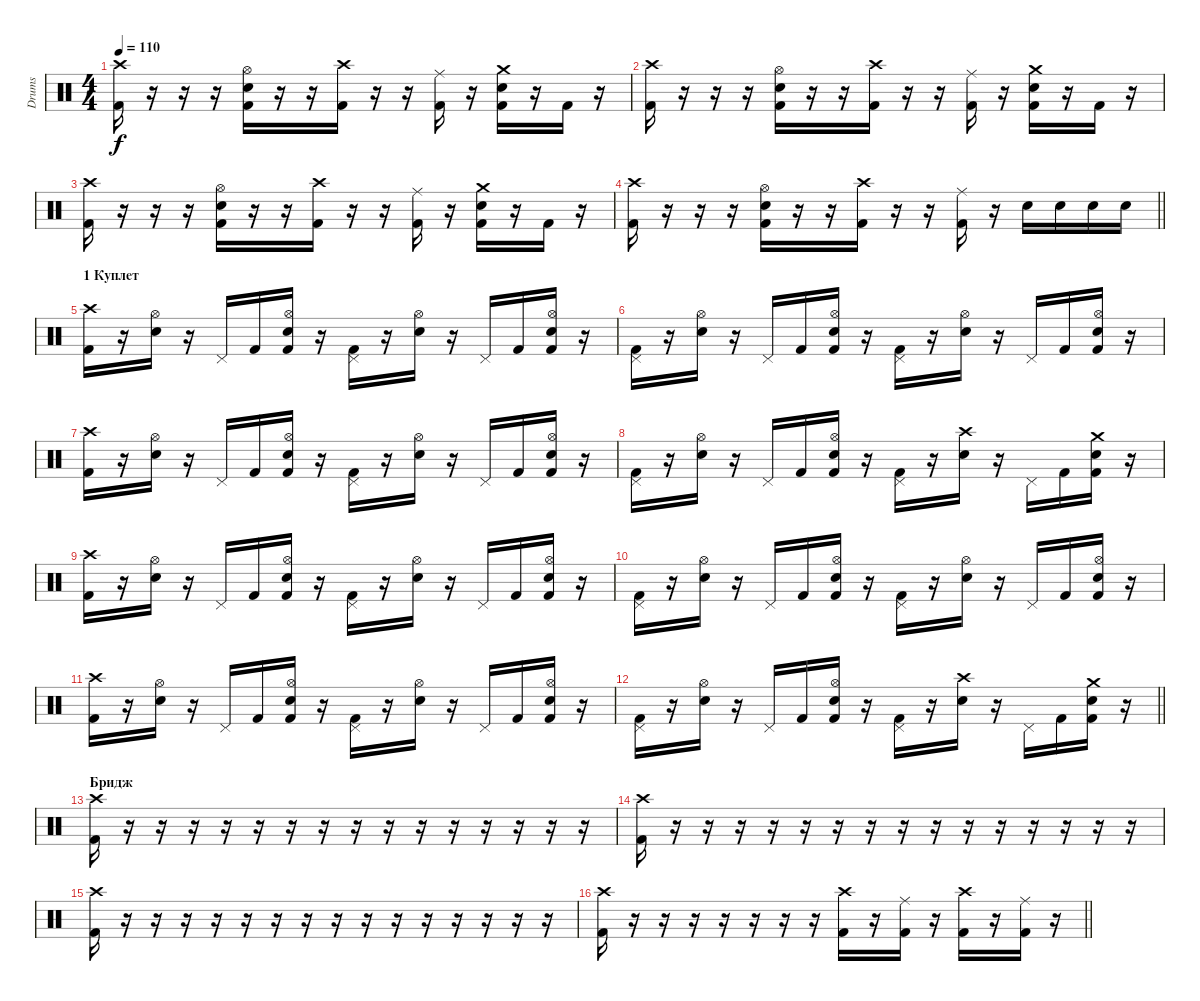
\track ("Drums" "Drums") {instrument percussion}
\staff {score}
\articulation defaults
\ts (4 4)
\section ("" "")
\tempo 110
\clef neutral
\ks c
("Crash high (hit)" "Kick (hit) 2").16{dy f} r.16 r.16 r.16 ("Hi-Hat (open)" "Snare (hit) 2" "Kick (hit) 2").16 r.16 r.16 ("Crash high (hit)" "Kick (hit) 2").16 r.16 r.16 ("Ride (middle)" "Kick (hit) 2").16 r.16 ("Crash medium (hit)" "Snare (hit) 2" "Kick (hit) 2").16 r.16 "Kick (hit) 2".16 r.16 |
("Crash high (hit)" "Kick (hit) 2").16 r.16 r.16 r.16 ("Hi-Hat (open)" "Snare (hit) 2" "Kick (hit) 2").16 r.16 r.16 ("Crash high (hit)" "Kick (hit) 2").16 r.16 r.16 ("Ride (middle)" "Kick (hit) 2").16 r.16 ("Crash medium (hit)" "Snare (hit) 2" "Kick (hit) 2").16 r.16 "Kick (hit) 2".16 r.16 |
("Crash high (hit)" "Kick (hit) 2").16 r.16 r.16 r.16 ("Hi-Hat (open)" "Snare (hit) 2" "Kick (hit) 2").16 r.16 r.16 ("Crash high (hit)" "Kick (hit) 2").16 r.16 r.16 ("Ride (middle)" "Kick (hit) 2").16 r.16 ("Crash medium (hit)" "Snare (hit) 2" "Kick (hit) 2").16 r.16 "Kick (hit) 2".16 r.16 |
\barLineRight lightlight
("Crash high (hit)" "Kick (hit) 2").16 r.16 r.16 r.16 ("Hi-Hat (open)" "Snare (hit) 2" "Kick (hit) 2").16 r.16 r.16 ("Crash high (hit)" "Kick (hit) 2").16 r.16 r.16 ("Ride (middle)" "Kick (hit) 2").16 r.16 "Snare (hit) 2".16 "Snare (hit) 2".16 "Snare (hit) 2".16 "Snare (hit) 2".16 |
\section ("" "1 Куплет")
("Crash high (hit)" "Kick (hit) 2").16 r.16 ("Hi-Hat (open)" "Snare (hit) 2").16 r.16 "Pedal Hi-Hat (hit)".16 "Kick (hit) 2".16 ("Hi-Hat (open)" "Snare (hit) 2" "Kick (hit) 2").16 r.16 ("Pedal Hi-Hat (hit)" "Kick (hit) 2").16 r.16 ("Hi-Hat (open)" "Snare (hit) 2").16 r.16 "Pedal Hi-Hat (hit)".16 "Kick (hit) 2".16 ("Hi-Hat (open)" "Snare (hit) 2" "Kick (hit) 2").16 r.16 |
("Pedal Hi-Hat (hit)" "Kick (hit) 2").16 r.16 ("Hi-Hat (open)" "Snare (hit) 2").16 r.16 "Pedal Hi-Hat (hit)".16 "Kick (hit) 2".16 ("Hi-Hat (open)" "Snare (hit) 2" "Kick (hit) 2").16 r.16 ("Pedal Hi-Hat (hit)" "Kick (hit) 2").16 r.16 ("Hi-Hat (open)" "Snare (hit) 2").16 r.16 "Pedal Hi-Hat (hit)".16 "Kick (hit) 2".16 ("Hi-Hat (open)" "Snare (hit) 2" "Kick (hit) 2").16 r.16 |
("Crash high (hit)" "Kick (hit) 2").16 r.16 ("Hi-Hat (open)" "Snare (hit) 2").16 r.16 "Pedal Hi-Hat (hit)".16 "Kick (hit) 2".16 ("Hi-Hat (open)" "Snare (hit) 2" "Kick (hit) 2").16 r.16 ("Pedal Hi-Hat (hit)" "Kick (hit) 2").16 r.16 ("Hi-Hat (open)" "Snare (hit) 2").16 r.16 "Pedal Hi-Hat (hit)".16 "Kick (hit) 2".16 ("Hi-Hat (open)" "Snare (hit) 2" "Kick (hit) 2").16 r.16 |
("Pedal Hi-Hat (hit)" "Kick (hit) 2").16 r.16 ("Hi-Hat (open)" "Snare (hit) 2").16 r.16 "Pedal Hi-Hat (hit)".16 "Kick (hit) 2".16 ("Hi-Hat (open)" "Snare (hit) 2" "Kick (hit) 2").16 r.16 ("Pedal Hi-Hat (hit)" "Kick (hit) 2").16 r.16 ("Crash high (hit)" "Snare (hit) 2").16 r.16 "Pedal Hi-Hat (hit)".16 "Kick (hit) 2".16 ("Crash medium (hit)" "Snare (hit) 2" "Kick (hit) 2").16 r.16 |
("Crash high (hit)" "Kick (hit) 2").16 r.16 ("Hi-Hat (open)" "Snare (hit) 2").16 r.16 "Pedal Hi-Hat (hit)".16 "Kick (hit) 2".16 ("Hi-Hat (open)" "Snare (hit) 2" "Kick (hit) 2").16 r.16 ("Pedal Hi-Hat (hit)" "Kick (hit) 2").16 r.16 ("Hi-Hat (open)" "Snare (hit) 2").16 r.16 "Pedal Hi-Hat (hit)".16 "Kick (hit) 2".16 ("Hi-Hat (open)" "Snare (hit) 2" "Kick (hit) 2").16 r.16 |
("Pedal Hi-Hat (hit)" "Kick (hit) 2").16 r.16 ("Hi-Hat (open)" "Snare (hit) 2").16 r.16 "Pedal Hi-Hat (hit)".16 "Kick (hit) 2".16 ("Hi-Hat (open)" "Snare (hit) 2" "Kick (hit) 2").16 r.16 ("Pedal Hi-Hat (hit)" "Kick (hit) 2").16 r.16 ("Hi-Hat (open)" "Snare (hit) 2").16 r.16 "Pedal Hi-Hat (hit)".16 "Kick (hit) 2".16 ("Hi-Hat (open)" "Snare (hit) 2" "Kick (hit) 2").16 r.16 |
("Crash high (hit)" "Kick (hit) 2").16 r.16 ("Hi-Hat (open)" "Snare (hit) 2").16 r.16 "Pedal Hi-Hat (hit)".16 "Kick (hit) 2".16 ("Hi-Hat (open)" "Snare (hit) 2" "Kick (hit) 2").16 r.16 ("Pedal Hi-Hat (hit)" "Kick (hit) 2").16 r.16 ("Hi-Hat (open)" "Snare (hit) 2").16 r.16 "Pedal Hi-Hat (hit)".16 "Kick (hit) 2".16 ("Hi-Hat (open)" "Snare (hit) 2" "Kick (hit) 2").16 r.16 |
\barLineRight lightlight
("Pedal Hi-Hat (hit)" "Kick (hit) 2").16 r.16 ("Hi-Hat (open)" "Snare (hit) 2").16 r.16 "Pedal Hi-Hat (hit)".16 "Kick (hit) 2".16 ("Hi-Hat (open)" "Snare (hit) 2" "Kick (hit) 2").16 r.16 ("Pedal Hi-Hat (hit)" "Kick (hit) 2").16 r.16 ("Crash high (hit)" "Snare (hit) 2").16 r.16 "Pedal Hi-Hat (hit)".16 "Kick (hit) 2".16 ("Crash medium (hit)" "Snare (hit) 2" "Kick (hit) 2").16 r.16 |
\section ("" "Бридж")
("Crash high (hit)" "Kick (hit) 2").16 r.16 r.16 r.16 r.16 r.16 r.16 r.16 r.16 r.16 r.16 r.16 r.16 r.16 r.16 r.16 |
("Crash high (hit)" "Kick (hit) 2").16 r.16 r.16 r.16 r.16 r.16 r.16 r.16 r.16 r.16 r.16 r.16 r.16 r.16 r.16 r.16 |
("Crash high (hit)" "Kick (hit) 2").16 r.16 r.16 r.16 r.16 r.16 r.16 r.16 r.16 r.16 r.16 r.16 r.16 r.16 r.16 r.16 |
\barLineRight lightlight
("Crash high (hit)" "Kick (hit) 2").16 r.16 r.16 r.16 r.16 r.16 r.16 r.16 ("Crash high (hit)" "Kick (hit) 2").16 r.16 ("Ride (middle)" "Kick (hit) 2").16 r.16 ("Crash high (hit)" "Kick (hit) 2").16 r.16 ("Ride (middle)" "Kick (hit) 2").16 r.16
